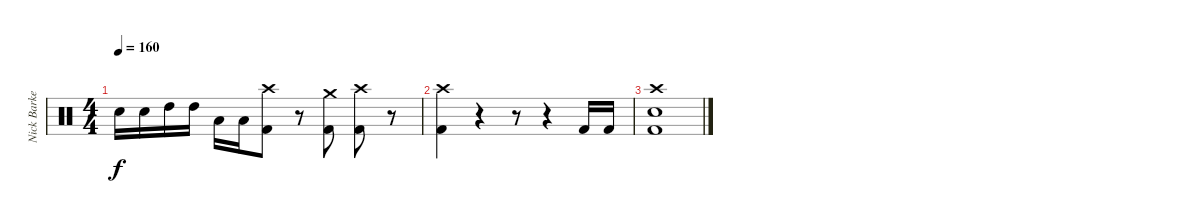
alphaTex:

\track ("Nick Barker" "Nick Barke") {instrument percussion}
\staff {score}
\articulation defaults
\ts (4 4)
\tempo 160
\clef neutral
\ks c "Electric Snare (hit)".16{dy f} "Electric Snare (hit)".16 "High Tom (hit)".16 "High Tom (hit)".16 "Low Tom (hit)".16 "Low Tom (hit)".16
("Crash high (hit)" "Kick (hit) 2").8 r.8 ("Crash medium (hit)" "Kick (hit) 2").8 ("Crash high (hit)" "Kick (hit) 2").8 r.8 |
("Crash high (hit)" "Kick (hit) 2").4 r.4 r.8 r.4 "Kick (hit) 2".16 "Kick (hit) 2".16 |
("Crash high (hit)" "Electric Snare (hit)" "Kick (hit) 2").1
